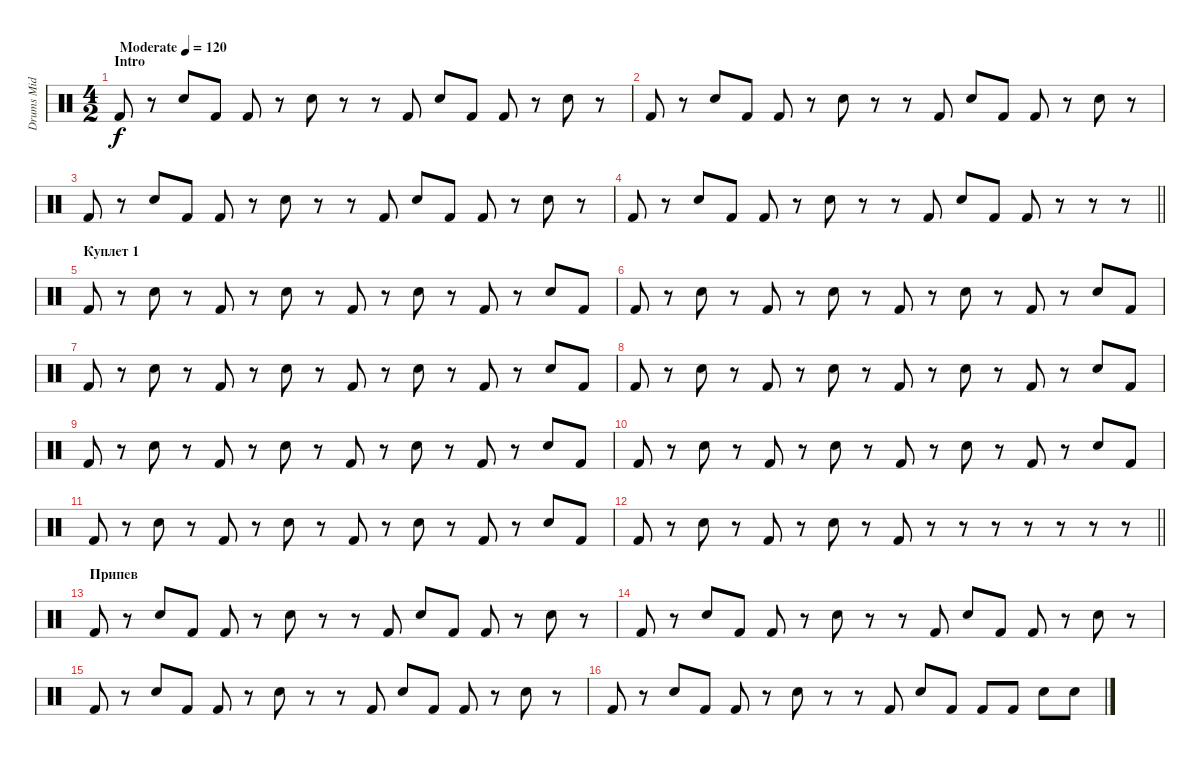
\track ("Drums Mid" "Drums Mid") {instrument percussion}
\staff {score}
\articulation defaults
\ts (4 2)
\section ("" "Intro")
\tempo (120 "Moderate")
\clef neutral
\ks c "Kick (hit) 2".8{dy f}
r.8 "Snare (hit) 2".8 "Kick (hit) 2".8 "Kick (hit) 2".8 r.8 "Snare (hit) 2".8 r.8 r.8 "Kick (hit) 2".8 "Snare (hit) 2".8 "Kick (hit) 2".8 "Kick (hit) 2".8 r.8 "Snare (hit) 2".8 r.8 |
"Kick (hit) 2".8 r.8 "Snare (hit) 2".8 "Kick (hit) 2".8 "Kick (hit) 2".8 r.8 "Snare (hit) 2".8 r.8 r.8 "Kick (hit) 2".8 "Snare (hit) 2".8 "Kick (hit) 2".8 "Kick (hit) 2".8 r.8 "Snare (hit) 2".8 r.8 |
"Kick (hit) 2".8 r.8 "Snare (hit) 2".8 "Kick (hit) 2".8 "Kick (hit) 2".8 r.8 "Snare (hit) 2".8 r.8 r.8 "Kick (hit) 2".8 "Snare (hit) 2".8 "Kick (hit) 2".8 "Kick (hit) 2".8 r.8 "Snare (hit) 2".8 r.8 |
\barLineRight lightlight "Kick (hit) 2".8
r.8 "Snare (hit) 2".8 "Kick (hit) 2".8 "Kick (hit) 2".8 r.8 "Snare (hit) 2".8 r.8 r.8 "Kick (hit) 2".8 "Snare (hit) 2".8 "Kick (hit) 2".8 "Kick (hit) 2".8 r.8 r.8 r.8 |
\section ("" "Куплет 1")
"Kick (hit) 2".8 r.8 "Snare (hit) 2".8 r.8 "Kick (hit) 2".8 r.8 "Snare (hit) 2".8 r.8 "Kick (hit) 2".8 r.8 "Snare (hit) 2".8 r.8 "Kick (hit) 2".8 r.8 "Snare (hit) 2".8 "Kick (hit) 2".8 |
"Kick (hit) 2".8 r.8 "Snare (hit) 2".8 r.8 "Kick (hit) 2".8 r.8 "Snare (hit) 2".8 r.8 "Kick (hit) 2".8 r.8 "Snare (hit) 2".8 r.8 "Kick (hit) 2".8 r.8 "Snare (hit) 2".8 "Kick (hit) 2".8 |
"Kick (hit) 2".8 r.8 "Snare (hit) 2".8 r.8 "Kick (hit) 2".8 r.8 "Snare (hit) 2".8 r.8 "Kick (hit) 2".8 r.8 "Snare (hit) 2".8 r.8 "Kick (hit) 2".8 r.8 "Snare (hit) 2".8 "Kick (hit) 2".8 |
"Kick (hit) 2".8 r.8 "Snare (hit) 2".8 r.8 "Kick (hit) 2".8 r.8 "Snare (hit) 2".8 r.8 "Kick (hit) 2".8 r.8 "Snare (hit) 2".8 r.8 "Kick (hit) 2".8 r.8 "Snare (hit) 2".8 "Kick (hit) 2".8 |
"Kick (hit) 2".8 r.8 "Snare (hit) 2".8 r.8 "Kick (hit) 2".8 r.8 "Snare (hit) 2".8 r.8 "Kick (hit) 2".8 r.8 "Snare (hit) 2".8 r.8 "Kick (hit) 2".8 r.8 "Snare (hit) 2".8 "Kick (hit) 2".8 |
"Kick (hit) 2".8 r.8 "Snare (hit) 2".8 r.8 "Kick (hit) 2".8 r.8 "Snare (hit) 2".8 r.8 "Kick (hit) 2".8 r.8 "Snare (hit) 2".8 r.8 "Kick (hit) 2".8 r.8 "Snare (hit) 2".8 "Kick (hit) 2".8 |
"Kick (hit) 2".8 r.8 "Snare (hit) 2".8 r.8 "Kick (hit) 2".8 r.8 "Snare (hit) 2".8 r.8 "Kick (hit) 2".8 r.8 "Snare (hit) 2".8 r.8 "Kick (hit) 2".8 r.8 "Snare (hit) 2".8 "Kick (hit) 2".8 |
\barLineRight lightlight "Kick (hit) 2".8
r.8 "Snare (hit) 2".8 r.8 "Kick (hit) 2".8 r.8 "Snare (hit) 2".8 r.8 "Kick (hit) 2".8 r.8 r.8 r.8 r.8 r.8 r.8 r.8 |
\section ("" "Припев")
"Kick (hit) 2".8 r.8 "Snare (hit) 2".8 "Kick (hit) 2".8 "Kick (hit) 2".8 r.8 "Snare (hit) 2".8 r.8 r.8 "Kick (hit) 2".8 "Snare (hit) 2".8 "Kick (hit) 2".8 "Kick (hit) 2".8 r.8 "Snare (hit) 2".8 r.8 |
"Kick (hit) 2".8 r.8 "Snare (hit) 2".8 "Kick (hit) 2".8 "Kick (hit) 2".8 r.8 "Snare (hit) 2".8 r.8 r.8 "Kick (hit) 2".8 "Snare (hit) 2".8 "Kick (hit) 2".8 "Kick (hit) 2".8 r.8 "Snare (hit) 2".8 r.8 |
"Kick (hit) 2".8 r.8 "Snare (hit) 2".8 "Kick (hit) 2".8 "Kick (hit) 2".8 r.8 "Snare (hit) 2".8 r.8 r.8 "Kick (hit) 2".8 "Snare (hit) 2".8 "Kick (hit) 2".8 "Kick (hit) 2".8 r.8 "Snare (hit) 2".8 r.8 |
"Kick (hit) 2".8 r.8 "Snare (hit) 2".8 "Kick (hit) 2".8 "Kick (hit) 2".8 r.8 "Snare (hit) 2".8 r.8 r.8 "Kick (hit) 2".8 "Snare (hit) 2".8 "Kick (hit) 2".8 "Kick (hit) 2".8 "Kick (hit) 2".8 "Snare (hit) 2".8 "Snare (hit) 2".8
